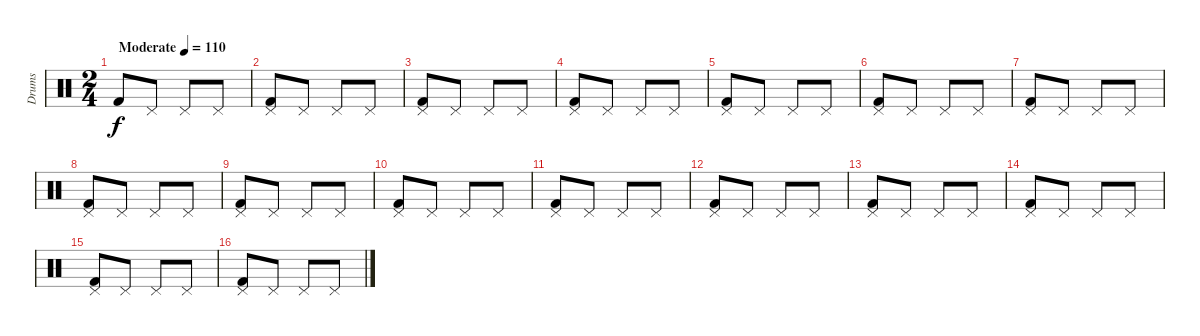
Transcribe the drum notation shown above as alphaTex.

\track ("Drums" "Drums") {instrument percussion}
\staff {score}
\articulation defaults
\ts (2 4)
\tempo (110 "Moderate")
\clef neutral
\ks c "Kick (hit) 2".8{dy f} "Pedal Hi-Hat (hit)".8 "Pedal Hi-Hat (hit)".8 "Pedal Hi-Hat (hit)".8
|
("Kick (hit) 2" "Pedal Hi-Hat (hit)").8 "Pedal Hi-Hat (hit)".8 "Pedal Hi-Hat (hit)".8 "Pedal Hi-Hat (hit)".8 |
("Kick (hit) 2" "Pedal Hi-Hat (hit)").8 "Pedal Hi-Hat (hit)".8 "Pedal Hi-Hat (hit)".8 "Pedal Hi-Hat (hit)".8 |
("Kick (hit) 2" "Pedal Hi-Hat (hit)").8 "Pedal Hi-Hat (hit)".8 "Pedal Hi-Hat (hit)".8 "Pedal Hi-Hat (hit)".8 |
("Kick (hit) 2" "Pedal Hi-Hat (hit)").8 "Pedal Hi-Hat (hit)".8 "Pedal Hi-Hat (hit)".8 "Pedal Hi-Hat (hit)".8 |
("Kick (hit) 2" "Pedal Hi-Hat (hit)").8 "Pedal Hi-Hat (hit)".8 "Pedal Hi-Hat (hit)".8 "Pedal Hi-Hat (hit)".8 |
("Kick (hit) 2" "Pedal Hi-Hat (hit)").8 "Pedal Hi-Hat (hit)".8 "Pedal Hi-Hat (hit)".8 "Pedal Hi-Hat (hit)".8 |
("Kick (hit) 2" "Pedal Hi-Hat (hit)").8 "Pedal Hi-Hat (hit)".8 "Pedal Hi-Hat (hit)".8 "Pedal Hi-Hat (hit)".8 |
("Kick (hit) 2" "Pedal Hi-Hat (hit)").8 "Pedal Hi-Hat (hit)".8 "Pedal Hi-Hat (hit)".8 "Pedal Hi-Hat (hit)".8 |
("Kick (hit) 2" "Pedal Hi-Hat (hit)").8 "Pedal Hi-Hat (hit)".8 "Pedal Hi-Hat (hit)".8 "Pedal Hi-Hat (hit)".8 |
("Kick (hit) 2" "Pedal Hi-Hat (hit)").8 "Pedal Hi-Hat (hit)".8 "Pedal Hi-Hat (hit)".8 "Pedal Hi-Hat (hit)".8 |
("Kick (hit) 2" "Pedal Hi-Hat (hit)").8 "Pedal Hi-Hat (hit)".8 "Pedal Hi-Hat (hit)".8 "Pedal Hi-Hat (hit)".8 |
("Kick (hit) 2" "Pedal Hi-Hat (hit)").8 "Pedal Hi-Hat (hit)".8 "Pedal Hi-Hat (hit)".8 "Pedal Hi-Hat (hit)".8 |
("Kick (hit) 2" "Pedal Hi-Hat (hit)").8 "Pedal Hi-Hat (hit)".8 "Pedal Hi-Hat (hit)".8 "Pedal Hi-Hat (hit)".8 |
("Kick (hit) 2" "Pedal Hi-Hat (hit)").8 "Pedal Hi-Hat (hit)".8 "Pedal Hi-Hat (hit)".8 "Pedal Hi-Hat (hit)".8 |
("Kick (hit) 2" "Pedal Hi-Hat (hit)").8 "Pedal Hi-Hat (hit)".8 "Pedal Hi-Hat (hit)".8 "Pedal Hi-Hat (hit)".8
